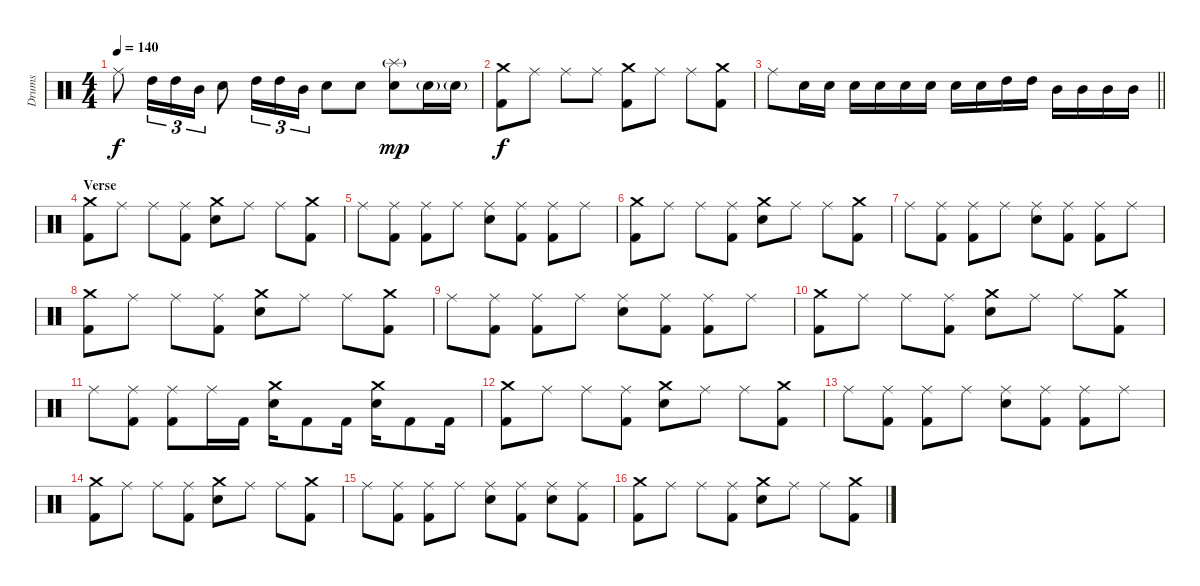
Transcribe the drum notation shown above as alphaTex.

\track ("Drums" "Drums") {instrument percussion}
\staff {score}
\articulation defaults
\ts (4 4)
\tempo 140
\clef neutral
\ks c "Ride (middle)".8{dy f} "High Tom (hit)".16{tu (3 2)} "High Tom (hit)".16{tu (3 2)} "Mid Tom (hit)".16{tu (3 2)} "Electric Snare (hit)".8 "High Tom (hit)".16{tu (3 2)} "High Tom (hit)".16{tu (3 2)} "Mid Tom (hit)".16{tu (3 2)} "Electric Snare (hit)".8 "Electric Snare (hit)".8
("Splash (hit)"{g} "Electric Snare (hit)").8{dy mp} "Electric Snare (hit)"{g}.16 "Electric Snare (hit)"{g}.16 |
("Crash medium (hit)" "Kick (hit) 2").8{dy f} "Ride (middle)".8 "Ride (middle)".8 "Ride (middle)".8 ("Crash medium (hit)" "Kick (hit) 2").8 "Ride (middle)".8 "Ride (middle)".8 ("Crash medium (hit)" "Kick (hit) 2").8 |
\barLineRight lightlight "Ride (middle)".8 "Electric Snare (hit)".16 "Electric Snare (hit)".16 "Electric Snare (hit)".16 "Electric Snare (hit)".16 "Electric Snare (hit)".16 "Electric Snare (hit)".16 "Electric Snare (hit)".16 "Electric Snare (hit)".16 "High Tom (hit)".16 "High Tom (hit)".16 "Mid Tom (hit)".16 "Mid Tom (hit)".16 "Mid Tom (hit)".16 "Mid Tom (hit)".16
|
\section ("" "Verse")
("Crash medium (hit)" "Kick (hit) 2").8 "Ride (middle)".8 "Ride (middle)".8 ("Ride (middle)" "Kick (hit) 2").8 ("Crash medium (hit)" "Electric Snare (hit)").8 "Ride (middle)".8 "Ride (middle)".8 ("Crash medium (hit)" "Kick (hit) 2").8 |
"Ride (middle)".8 ("Ride (middle)" "Kick (hit) 2").8 ("Ride (middle)" "Kick (hit) 2").8 "Ride (middle)".8 ("Ride (middle)" "Electric Snare (hit)").8 ("Ride (middle)" "Kick (hit) 2").8 ("Ride (middle)" "Kick (hit) 2").8 "Ride (middle)".8 |
("Crash medium (hit)" "Kick (hit) 2").8 "Ride (middle)".8 "Ride (middle)".8 ("Ride (middle)" "Kick (hit) 2").8 ("Crash medium (hit)" "Electric Snare (hit)").8 "Ride (middle)".8 "Ride (middle)".8 ("Crash medium (hit)" "Kick (hit) 2").8 |
"Ride (middle)".8 ("Ride (middle)" "Kick (hit) 2").8 ("Ride (middle)" "Kick (hit) 2").8 "Ride (middle)".8 ("Ride (middle)" "Electric Snare (hit)").8 ("Ride (middle)" "Kick (hit) 2").8 ("Ride (middle)" "Kick (hit) 2").8 "Ride (middle)".8 |
("Crash medium (hit)" "Kick (hit) 2").8 "Ride (middle)".8 "Ride (middle)".8 ("Ride (middle)" "Kick (hit) 2").8 ("Crash medium (hit)" "Electric Snare (hit)").8 "Ride (middle)".8 "Ride (middle)".8 ("Crash medium (hit)" "Kick (hit) 2").8 |
"Ride (middle)".8 ("Ride (middle)" "Kick (hit) 2").8 ("Ride (middle)" "Kick (hit) 2").8 "Ride (middle)".8 ("Ride (middle)" "Electric Snare (hit)").8 ("Ride (middle)" "Kick (hit) 2").8 ("Ride (middle)" "Kick (hit) 2").8 "Ride (middle)".8 |
("Crash medium (hit)" "Kick (hit) 2").8 "Ride (middle)".8 "Ride (middle)".8 ("Ride (middle)" "Kick (hit) 2").8 ("Crash medium (hit)" "Electric Snare (hit)").8 "Ride (middle)".8 "Ride (middle)".8 ("Crash medium (hit)" "Kick (hit) 2").8 |
"Ride (middle)".8 ("Ride (middle)" "Kick (hit) 2").8 ("Ride (middle)" "Kick (hit) 2").8 "Ride (middle)".16 "Kick (hit) 2".16 ("Crash medium (hit)" "Electric Snare (hit)").16 "Kick (hit) 2".8 "Kick (hit) 2".16 ("Crash medium (hit)" "Electric Snare (hit)").16 "Kick (hit) 2".8 "Kick (hit) 2".16 |
("Crash medium (hit)" "Kick (hit) 2").8 "Ride (middle)".8 "Ride (middle)".8 ("Ride (middle)" "Kick (hit) 2").8 ("Crash medium (hit)" "Electric Snare (hit)").8 "Ride (middle)".8 "Ride (middle)".8 ("Crash medium (hit)" "Kick (hit) 2").8 |
"Ride (middle)".8 ("Ride (middle)" "Kick (hit) 2").8 ("Ride (middle)" "Kick (hit) 2").8 "Ride (middle)".8 ("Ride (middle)" "Electric Snare (hit)").8 ("Ride (middle)" "Kick (hit) 2").8 ("Ride (middle)" "Kick (hit) 2").8 "Ride (middle)".8 |
("Crash medium (hit)" "Kick (hit) 2").8 "Ride (middle)".8 "Ride (middle)".8 ("Ride (middle)" "Kick (hit) 2").8 ("Crash medium (hit)" "Electric Snare (hit)").8 "Ride (middle)".8 "Ride (middle)".8 ("Crash medium (hit)" "Kick (hit) 2").8 |
"Ride (middle)".8 ("Ride (middle)" "Kick (hit) 2").8 ("Ride (middle)" "Kick (hit) 2").8 "Ride (middle)".8 ("Ride (middle)" "Electric Snare (hit)").8 ("Ride (middle)" "Kick (hit) 2").8 ("Ride (middle)" "Electric Snare (hit)").8 ("Ride (middle)" "Kick (hit) 2").8 |
("Crash medium (hit)" "Kick (hit) 2").8 "Ride (middle)".8 "Ride (middle)".8 ("Ride (middle)" "Kick (hit) 2").8 ("Crash medium (hit)" "Electric Snare (hit)").8 "Ride (middle)".8 "Ride (middle)".8 ("Crash medium (hit)" "Kick (hit) 2").8
